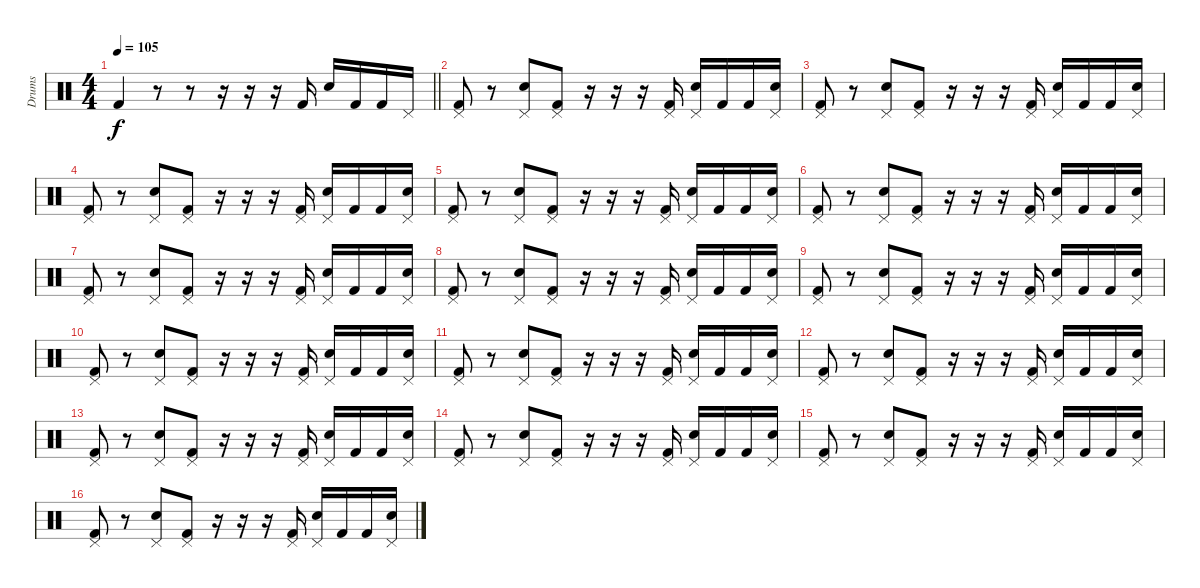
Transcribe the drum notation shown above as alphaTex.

\track ("Drums" "Drums") {instrument percussion}
\staff {score}
\articulation defaults
\ts (4 4)
\tempo 105
\clef neutral
\barLineRight lightlight
\ks c "Kick (hit) 2".4{dy f}
r.8 r.8 r.16 r.16 r.16 "Kick (hit) 2".16 "Snare (hit) 2".16 "Kick (hit) 2".16 "Kick (hit) 2".16 "Pedal Hi-Hat (hit)".16 |
("Pedal Hi-Hat (hit)" "Kick (hit) 2").8 r.8 ("Pedal Hi-Hat (hit)" "Snare (hit) 2").8 ("Pedal Hi-Hat (hit)" "Kick (hit) 2").8 r.16 r.16 r.16 ("Pedal Hi-Hat (hit)" "Kick (hit) 2").16 ("Pedal Hi-Hat (hit)" "Snare (hit) 2").16 "Kick (hit) 2".16 "Kick (hit) 2".16 ("Pedal Hi-Hat (hit)" "Snare (hit) 2").16 |
("Pedal Hi-Hat (hit)" "Kick (hit) 2").8 r.8 ("Pedal Hi-Hat (hit)" "Snare (hit) 2").8 ("Pedal Hi-Hat (hit)" "Kick (hit) 2").8 r.16 r.16 r.16 ("Pedal Hi-Hat (hit)" "Kick (hit) 2").16 ("Pedal Hi-Hat (hit)" "Snare (hit) 2").16 "Kick (hit) 2".16 "Kick (hit) 2".16 ("Pedal Hi-Hat (hit)" "Snare (hit) 2").16 |
("Pedal Hi-Hat (hit)" "Kick (hit) 2").8 r.8 ("Pedal Hi-Hat (hit)" "Snare (hit) 2").8 ("Pedal Hi-Hat (hit)" "Kick (hit) 2").8 r.16 r.16 r.16 ("Pedal Hi-Hat (hit)" "Kick (hit) 2").16 ("Pedal Hi-Hat (hit)" "Snare (hit) 2").16 "Kick (hit) 2".16 "Kick (hit) 2".16 ("Pedal Hi-Hat (hit)" "Snare (hit) 2").16 |
("Pedal Hi-Hat (hit)" "Kick (hit) 2").8 r.8 ("Pedal Hi-Hat (hit)" "Snare (hit) 2").8 ("Pedal Hi-Hat (hit)" "Kick (hit) 2").8 r.16 r.16 r.16 ("Pedal Hi-Hat (hit)" "Kick (hit) 2").16 ("Pedal Hi-Hat (hit)" "Snare (hit) 2").16 "Kick (hit) 2".16 "Kick (hit) 2".16 ("Pedal Hi-Hat (hit)" "Snare (hit) 2").16 |
("Pedal Hi-Hat (hit)" "Kick (hit) 2").8 r.8 ("Pedal Hi-Hat (hit)" "Snare (hit) 2").8 ("Pedal Hi-Hat (hit)" "Kick (hit) 2").8 r.16 r.16 r.16 ("Pedal Hi-Hat (hit)" "Kick (hit) 2").16 ("Pedal Hi-Hat (hit)" "Snare (hit) 2").16 "Kick (hit) 2".16 "Kick (hit) 2".16 ("Pedal Hi-Hat (hit)" "Snare (hit) 2").16 |
("Pedal Hi-Hat (hit)" "Kick (hit) 2").8 r.8 ("Pedal Hi-Hat (hit)" "Snare (hit) 2").8 ("Pedal Hi-Hat (hit)" "Kick (hit) 2").8 r.16 r.16 r.16 ("Pedal Hi-Hat (hit)" "Kick (hit) 2").16 ("Pedal Hi-Hat (hit)" "Snare (hit) 2").16 "Kick (hit) 2".16 "Kick (hit) 2".16 ("Pedal Hi-Hat (hit)" "Snare (hit) 2").16 |
("Pedal Hi-Hat (hit)" "Kick (hit) 2").8 r.8 ("Pedal Hi-Hat (hit)" "Snare (hit) 2").8 ("Pedal Hi-Hat (hit)" "Kick (hit) 2").8 r.16 r.16 r.16 ("Pedal Hi-Hat (hit)" "Kick (hit) 2").16 ("Pedal Hi-Hat (hit)" "Snare (hit) 2").16 "Kick (hit) 2".16 "Kick (hit) 2".16 ("Pedal Hi-Hat (hit)" "Snare (hit) 2").16 |
("Pedal Hi-Hat (hit)" "Kick (hit) 2").8 r.8 ("Pedal Hi-Hat (hit)" "Snare (hit) 2").8 ("Pedal Hi-Hat (hit)" "Kick (hit) 2").8 r.16 r.16 r.16 ("Pedal Hi-Hat (hit)" "Kick (hit) 2").16 ("Pedal Hi-Hat (hit)" "Snare (hit) 2").16 "Kick (hit) 2".16 "Kick (hit) 2".16 ("Pedal Hi-Hat (hit)" "Snare (hit) 2").16 |
("Pedal Hi-Hat (hit)" "Kick (hit) 2").8 r.8 ("Pedal Hi-Hat (hit)" "Snare (hit) 2").8 ("Pedal Hi-Hat (hit)" "Kick (hit) 2").8 r.16 r.16 r.16 ("Pedal Hi-Hat (hit)" "Kick (hit) 2").16 ("Pedal Hi-Hat (hit)" "Snare (hit) 2").16 "Kick (hit) 2".16 "Kick (hit) 2".16 ("Pedal Hi-Hat (hit)" "Snare (hit) 2").16 |
("Pedal Hi-Hat (hit)" "Kick (hit) 2").8 r.8 ("Pedal Hi-Hat (hit)" "Snare (hit) 2").8 ("Pedal Hi-Hat (hit)" "Kick (hit) 2").8 r.16 r.16 r.16 ("Pedal Hi-Hat (hit)" "Kick (hit) 2").16 ("Pedal Hi-Hat (hit)" "Snare (hit) 2").16 "Kick (hit) 2".16 "Kick (hit) 2".16 ("Pedal Hi-Hat (hit)" "Snare (hit) 2").16 |
("Pedal Hi-Hat (hit)" "Kick (hit) 2").8 r.8 ("Pedal Hi-Hat (hit)" "Snare (hit) 2").8 ("Pedal Hi-Hat (hit)" "Kick (hit) 2").8 r.16 r.16 r.16 ("Pedal Hi-Hat (hit)" "Kick (hit) 2").16 ("Pedal Hi-Hat (hit)" "Snare (hit) 2").16 "Kick (hit) 2".16 "Kick (hit) 2".16 ("Pedal Hi-Hat (hit)" "Snare (hit) 2").16 |
("Pedal Hi-Hat (hit)" "Kick (hit) 2").8 r.8 ("Pedal Hi-Hat (hit)" "Snare (hit) 2").8 ("Pedal Hi-Hat (hit)" "Kick (hit) 2").8 r.16 r.16 r.16 ("Pedal Hi-Hat (hit)" "Kick (hit) 2").16 ("Pedal Hi-Hat (hit)" "Snare (hit) 2").16 "Kick (hit) 2".16 "Kick (hit) 2".16 ("Pedal Hi-Hat (hit)" "Snare (hit) 2").16 |
("Pedal Hi-Hat (hit)" "Kick (hit) 2").8 r.8 ("Pedal Hi-Hat (hit)" "Snare (hit) 2").8 ("Pedal Hi-Hat (hit)" "Kick (hit) 2").8 r.16 r.16 r.16 ("Pedal Hi-Hat (hit)" "Kick (hit) 2").16 ("Pedal Hi-Hat (hit)" "Snare (hit) 2").16 "Kick (hit) 2".16 "Kick (hit) 2".16 ("Pedal Hi-Hat (hit)" "Snare (hit) 2").16 |
("Pedal Hi-Hat (hit)" "Kick (hit) 2").8 r.8 ("Pedal Hi-Hat (hit)" "Snare (hit) 2").8 ("Pedal Hi-Hat (hit)" "Kick (hit) 2").8 r.16 r.16 r.16 ("Pedal Hi-Hat (hit)" "Kick (hit) 2").16 ("Pedal Hi-Hat (hit)" "Snare (hit) 2").16 "Kick (hit) 2".16 "Kick (hit) 2".16 ("Pedal Hi-Hat (hit)" "Snare (hit) 2").16 |
("Pedal Hi-Hat (hit)" "Kick (hit) 2").8 r.8 ("Pedal Hi-Hat (hit)" "Snare (hit) 2").8 ("Pedal Hi-Hat (hit)" "Kick (hit) 2").8 r.16 r.16 r.16 ("Pedal Hi-Hat (hit)" "Kick (hit) 2").16 ("Pedal Hi-Hat (hit)" "Snare (hit) 2").16 "Kick (hit) 2".16 "Kick (hit) 2".16 ("Pedal Hi-Hat (hit)" "Snare (hit) 2").16
